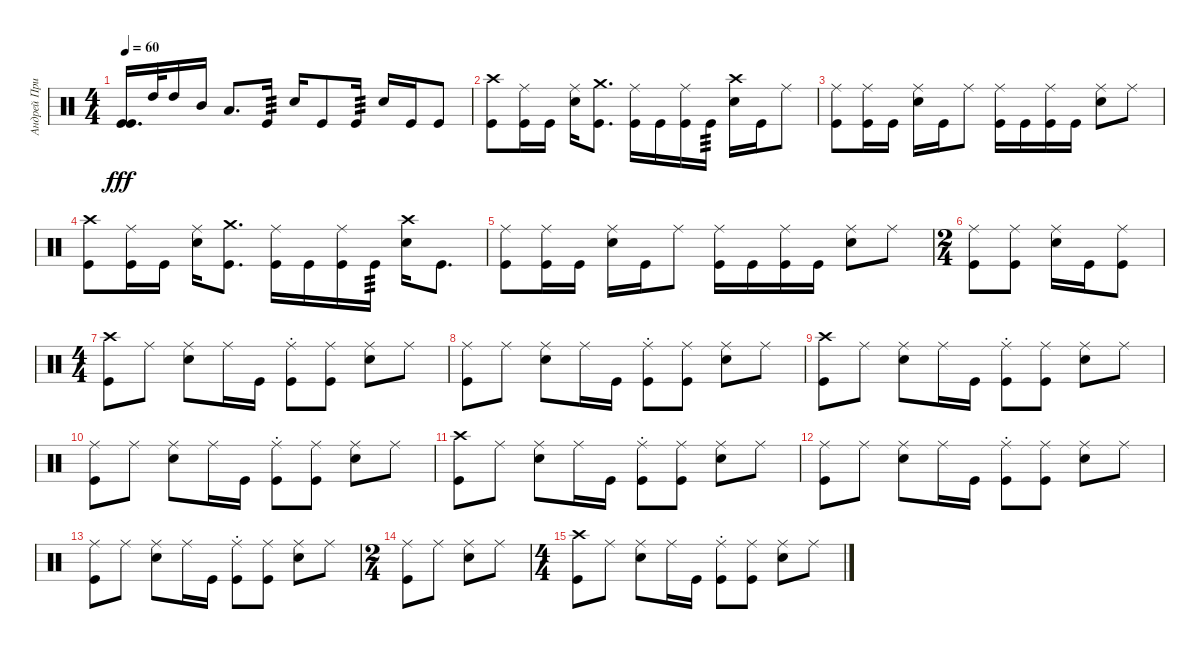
\track ("Андрей Приставка" "Андрей При") {instrument percussion}
\staff {score}
\articulation defaults
\ts (4 4)
\tempo 60
\clef neutral
\ks c
("Kick (hit)" "Kick (hit)").16{d dy fff} "High Tom (hit)".32 "High Tom (hit)".16 "Mid Tom (hit)".16 "Low Tom (hit)".8{d} "Kick (hit)".16{tp 3} "Snare (hit) 2".16 "Kick (hit)".8 "Kick (hit)".16{tp 3} "Snare (hit) 2".16 "Kick (hit)".16 "Kick (hit)".8 |
("Kick (hit)" "Crash high (hit)").8 ("Kick (hit)" "Ride (middle)").16 "Kick (hit)".16 ("Snare (hit) 2" "Ride (middle)").16 ("Kick (hit)" "Crash medium (hit)").8{d} ("Kick (hit)" "Ride (middle)").16 "Kick (hit)".16 ("Kick (hit)" "Ride (middle)").16 "Kick (hit)".16{tp 3} ("Snare (hit) 2" "Crash high (hit)").16 "Kick (hit)".16 "Ride (middle)".8 |
("Kick (hit)" "Ride (middle)").8 ("Kick (hit)" "Ride (middle)").16 "Kick (hit)".16 ("Ride (middle)" "Snare (hit) 2").16 "Kick (hit)".16 "Ride (middle)".8 ("Kick (hit)" "Ride (middle)").16 "Kick (hit)".16 ("Kick (hit)" "Ride (middle)").16 "Kick (hit)".16 ("Snare (hit) 2" "Ride (middle)").8 "Ride (middle)".8 |
("Kick (hit)" "Crash high (hit)").8 ("Kick (hit)" "Ride (middle)").16 "Kick (hit)".16 ("Snare (hit) 2" "Ride (middle)").16 ("Kick (hit)" "Crash medium (hit)").8{d} ("Kick (hit)" "Ride (middle)").16 "Kick (hit)".16 ("Kick (hit)" "Ride (middle)").16 "Kick (hit)".16{tp 3} ("Snare (hit) 2" "Crash high (hit)").16 "Kick (hit)".8{d} |
("Kick (hit)" "Ride (middle)").8 ("Kick (hit)" "Ride (middle)").16 "Kick (hit)".16 ("Ride (middle)" "Snare (hit) 2").16 "Kick (hit)".16 "Ride (middle)".8 ("Kick (hit)" "Ride (middle)").16 "Kick (hit)".16 ("Kick (hit)" "Ride (middle)").16 "Kick (hit)".16 ("Snare (hit) 2" "Ride (middle)").8 "Ride (middle)".8 |
\ts (2 4)
("Kick (hit)" "Ride (middle)").8 ("Ride (middle)" "Kick (hit)").8 ("Snare (hit) 2" "Ride (middle)").16 "Kick (hit)".16 ("Kick (hit)" "Ride (middle)").8 |
\ts (4 4)
("Kick (hit)" "Crash high (hit)").8 "Ride (middle)".8 ("Ride (middle)" "Snare (hit) 2").8 "Ride (middle)".16 "Kick (hit)".16 ("Kick (hit)"{st} "Ride (middle)"{st}).8 ("Ride (middle)" "Kick (hit)").8 ("Snare (hit) 2" "Ride (middle)").8 "Ride (middle)".8 |
("Kick (hit)" "Ride (middle)").8 "Ride (middle)".8 ("Ride (middle)" "Snare (hit) 2").8 "Ride (middle)".16 "Kick (hit)".16 ("Kick (hit)"{st} "Ride (middle)"{st}).8 ("Ride (middle)" "Kick (hit)").8 ("Snare (hit) 2" "Ride (middle)").8 "Ride (middle)".8 |
("Kick (hit)" "Crash high (hit)").8 "Ride (middle)".8 ("Ride (middle)" "Snare (hit) 2").8 "Ride (middle)".16 "Kick (hit)".16 ("Kick (hit)"{st} "Ride (middle)"{st}).8 ("Ride (middle)" "Kick (hit)").8 ("Snare (hit) 2" "Ride (middle)").8 "Ride (middle)".8 |
("Kick (hit)" "Ride (middle)").8 "Ride (middle)".8 ("Ride (middle)" "Snare (hit) 2").8 "Ride (middle)".16 "Kick (hit)".16 ("Kick (hit)"{st} "Ride (middle)"{st}).8 ("Ride (middle)" "Kick (hit)").8 ("Snare (hit) 2" "Ride (middle)").8 "Ride (middle)".8 |
("Kick (hit)" "Crash high (hit)").8 "Ride (middle)".8 ("Ride (middle)" "Snare (hit) 2").8 "Ride (middle)".16 "Kick (hit)".16 ("Kick (hit)"{st} "Ride (middle)"{st}).8 ("Ride (middle)" "Kick (hit)").8 ("Snare (hit) 2" "Ride (middle)").8 "Ride (middle)".8 |
("Kick (hit)" "Ride (middle)").8 "Ride (middle)".8 ("Ride (middle)" "Snare (hit) 2").8 "Ride (middle)".16 "Kick (hit)".16 ("Kick (hit)"{st} "Ride (middle)"{st}).8 ("Ride (middle)" "Kick (hit)").8 ("Snare (hit) 2" "Ride (middle)").8 "Ride (middle)".8 |
("Kick (hit)" "Ride (middle)").8 "Ride (middle)".8 ("Ride (middle)" "Snare (hit) 2").8 "Ride (middle)".16 "Kick (hit)".16 ("Kick (hit)"{st} "Ride (middle)"{st}).8 ("Ride (middle)" "Kick (hit)").8 ("Snare (hit) 2" "Ride (middle)").8 "Ride (middle)".8 |
\ts (2 4)
("Kick (hit)" "Ride (middle)").8 "Ride (middle)".8 ("Ride (middle)" "Snare (hit) 2").8 "Ride (middle)".8 |
\ts (4 4)
("Kick (hit)" "Crash high (hit)").8 "Ride (middle)".8 ("Ride (middle)" "Snare (hit) 2").8 "Ride (middle)".16 "Kick (hit)".16 ("Kick (hit)"{st} "Ride (middle)"{st}).8 ("Ride (middle)" "Kick (hit)").8 ("Snare (hit) 2" "Ride (middle)").8 "Ride (middle)".8
